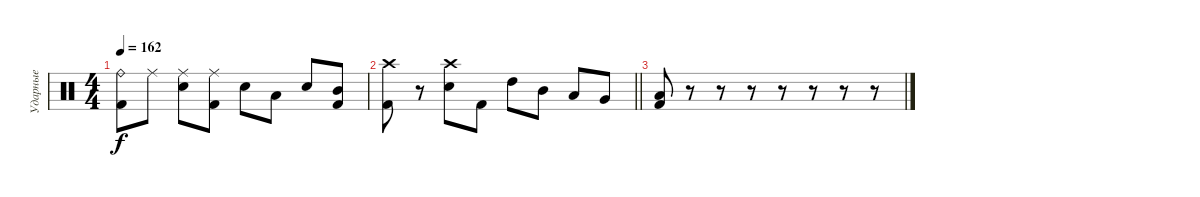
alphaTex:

\track ("Ударные" "Ударные") {instrument percussion}
\staff {score}
\articulation defaults
\ts (4 4)
\tempo 162
\clef neutral
\ks c
("Ride (bell)" "Kick (hit) 2").8{dy f} "Ride (middle)".8 ("Ride (middle)" "Snare (hit) 2").8 ("Ride (middle)" "Kick (hit) 2").8 "Snare (hit) 2".8 "Low Tom (hit)".8 "Snare (hit) 2".8 ("Mid Tom (hit)" "Kick (hit) 2").8 |
\barLineRight lightlight
("Crash high (hit)" "Kick (hit) 2").8 r.8 ("Crash high (hit)" "Snare (hit) 2").8 "Kick (hit) 2".8 "High Tom (hit)".8 "Mid Tom (hit)".8 "Low Tom (hit)".8 "Very Low Tom (hit)".8 |
("Low Floor Tom (hit)" "Kick (hit) 2").8 r.8 r.8 r.8 r.8 r.8 r.8 r.8
